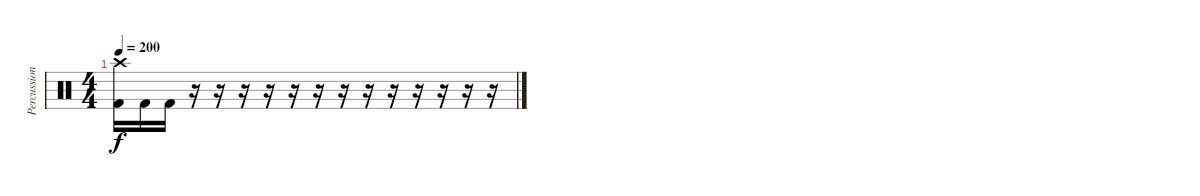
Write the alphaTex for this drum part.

\track ("Percussion" "Percussion") {instrument percussion}
\staff {score}
\articulation defaults
\ts (4 4)
\tempo 200
\clef neutral
\ks c
("Crash high (hit)" "Kick (hit) 2").16{dy f} "Kick (hit) 2".16 "Kick (hit) 2".16 r.16 r.16 r.16 r.16 r.16 r.16 r.16 r.16 r.16 r.16 r.16 r.16 r.16
